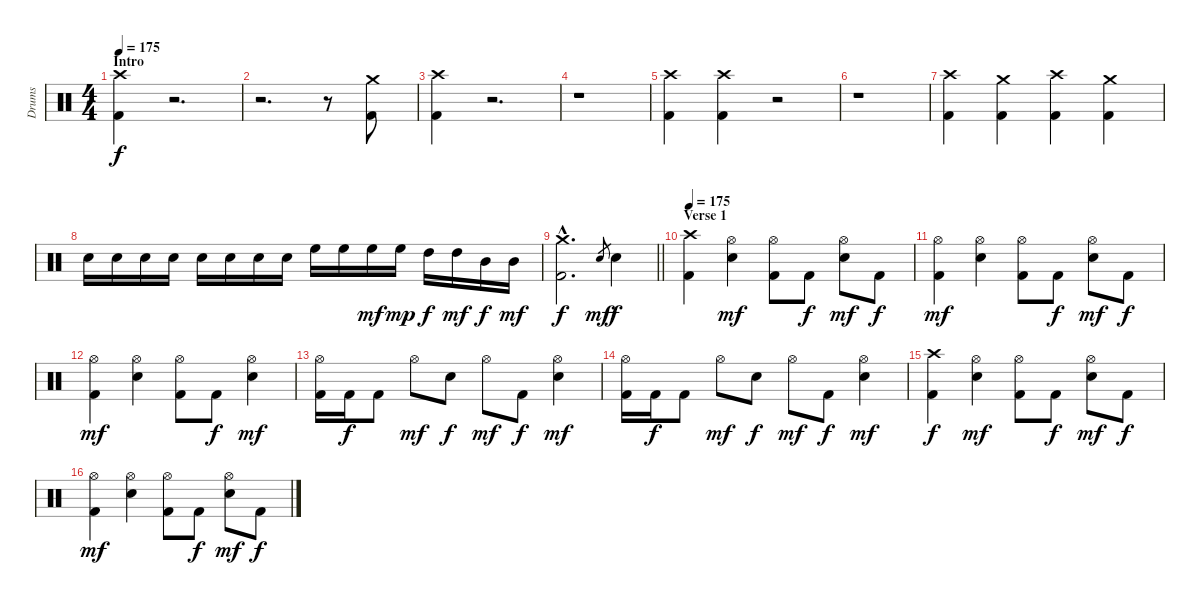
\track ("Drums" "Drums") {instrument percussion}
\staff {score}
\articulation defaults
\ts (4 4)
\section ("" "Intro")
\tempo 175
\tempo 180
\tempo 175
\clef neutral
\ks c
("Crash high (hit)" "Kick (hit) 2").4{dy f} r.2{d volume 0} |
r.2{d} r.8 ("Crash medium (hit)" "Kick (hit) 2").8{volume 14} |
("Crash high (hit)" "Kick (hit) 2").4 r.2{d volume 0} |
r.1 |
("Crash high (hit)" "Kick (hit) 2").4{volume 14} ("Crash high (hit)" "Kick (hit) 2").4 r.2{volume 0} |
r.1 |
("Crash high (hit)" "Kick (hit) 2").4{volume 14} ("Crash medium (hit)" "Kick (hit) 2").4 ("Crash high (hit)" "Kick (hit) 2").4 ("Crash medium (hit)" "Kick (hit) 2").4 |
"Electric Snare (hit)".16 "Electric Snare (hit)".16 "Electric Snare (hit)".16 "Electric Snare (hit)".16 "Electric Snare (hit)".16 "Electric Snare (hit)".16 "Electric Snare (hit)".16 "Electric Snare (hit)".16 "High Floor Tom (hit)".16 "High Floor Tom (hit)".16 "High Floor Tom (hit)".16{dy mf} "High Floor Tom (hit)".16{dy mp} "High Tom (hit)".16{dy f} "High Tom (hit)".16{dy mf} "Mid Tom (hit)".16{dy f} "Mid Tom (hit)".16{dy mf} |
\barLineRight lightlight
("Crash medium (hit)"{hac} "Kick (hit) 2"{hac}).2{d dy f} "Electric Snare (hit)".8{gr dy mf} "Electric Snare (hit)".4{dy f} |
\section ("" "Verse 1")
\tempo 175
("Crash high (hit)" "Kick (hit) 2").4 ("Hi-Hat (open)" "Electric Snare (hit)").4{dy mf} ("Hi-Hat (open)" "Kick (hit) 2").8 "Kick (hit) 2".8{dy f} ("Hi-Hat (open)" "Electric Snare (hit)").8{dy mf} "Kick (hit) 2".8{dy f} |
("Hi-Hat (open)" "Kick (hit) 2").4{dy mf} ("Hi-Hat (open)" "Electric Snare (hit)").4 ("Hi-Hat (open)" "Kick (hit) 2").8 "Kick (hit) 2".8{dy f} ("Hi-Hat (open)" "Electric Snare (hit)").8{dy mf} "Kick (hit) 2".8{dy f} |
("Hi-Hat (open)" "Kick (hit) 2").4{dy mf} ("Hi-Hat (open)" "Electric Snare (hit)").4 ("Hi-Hat (open)" "Kick (hit) 2").8 "Kick (hit) 2".8{dy f} ("Hi-Hat (open)" "Electric Snare (hit)").4{dy mf} |
("Hi-Hat (open)" "Kick (hit) 2").16 "Kick (hit) 2".16{dy f} "Kick (hit) 2".8 "Hi-Hat (open)".8{dy mf} "Electric Snare (hit)".8{dy f} "Hi-Hat (open)".8{dy mf} "Kick (hit) 2".8{dy f} ("Hi-Hat (open)" "Electric Snare (hit)").4{dy mf} |
("Hi-Hat (open)" "Kick (hit) 2").16 "Kick (hit) 2".16{dy f} "Kick (hit) 2".8 "Hi-Hat (open)".8{dy mf} "Electric Snare (hit)".8{dy f} "Hi-Hat (open)".8{dy mf} "Kick (hit) 2".8{dy f} ("Hi-Hat (open)" "Electric Snare (hit)").4{dy mf} |
("Crash high (hit)" "Kick (hit) 2").4{dy f} ("Hi-Hat (open)" "Electric Snare (hit)").4{dy mf} ("Hi-Hat (open)" "Kick (hit) 2").8 "Kick (hit) 2".8{dy f} ("Hi-Hat (open)" "Electric Snare (hit)").8{dy mf} "Kick (hit) 2".8{dy f} |
("Hi-Hat (open)" "Kick (hit) 2").4{dy mf} ("Hi-Hat (open)" "Electric Snare (hit)").4 ("Hi-Hat (open)" "Kick (hit) 2").8 "Kick (hit) 2".8{dy f} ("Hi-Hat (open)" "Electric Snare (hit)").8{dy mf} "Kick (hit) 2".8{dy f}
